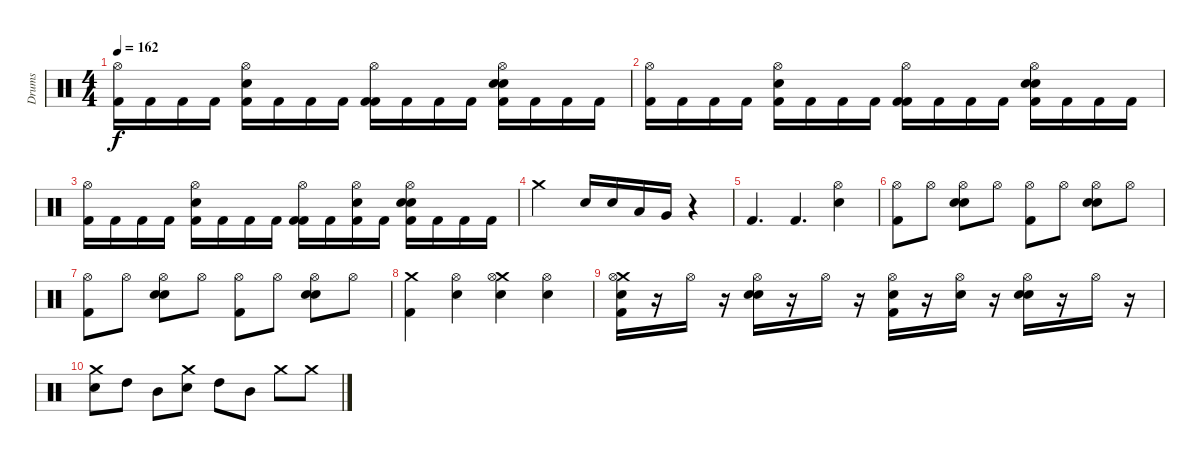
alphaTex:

\track ("Drums" "Drums") {instrument percussion}
\staff {score}
\articulation defaults
\ts (4 4)
\tempo 162
\clef neutral
\ks c
("Hi-Hat (open)" "Kick (hit) 2").16{dy f} "Kick (hit) 2".16 "Kick (hit) 2".16 "Kick (hit) 2".16 ("Kick (hit) 2" "Electric Snare (hit)" "Hi-Hat (open)").16 "Kick (hit) 2".16 "Kick (hit) 2".16 "Kick (hit) 2".16 ("Kick (hit) 2" "Hi-Hat (open)" "Kick (hit) 2").16 "Kick (hit) 2".16 "Kick (hit) 2".16 "Kick (hit) 2".16 ("Kick (hit) 2" "Electric Snare (hit)" "Hi-Hat (open)" "Snare (hit) 2").16 "Kick (hit) 2".16 "Kick (hit) 2".16 "Kick (hit) 2".16 |
("Hi-Hat (open)" "Kick (hit) 2").16 "Kick (hit) 2".16 "Kick (hit) 2".16 "Kick (hit) 2".16 ("Kick (hit) 2" "Electric Snare (hit)" "Hi-Hat (open)").16 "Kick (hit) 2".16 "Kick (hit) 2".16 "Kick (hit) 2".16 ("Kick (hit) 2" "Hi-Hat (open)" "Kick (hit) 2").16 "Kick (hit) 2".16 "Kick (hit) 2".16 "Kick (hit) 2".16 ("Kick (hit) 2" "Electric Snare (hit)" "Hi-Hat (open)" "Snare (hit) 2").16 "Kick (hit) 2".16 "Kick (hit) 2".16 "Kick (hit) 2".16 |
("Hi-Hat (open)" "Kick (hit) 2").16 "Kick (hit) 2".16 "Kick (hit) 2".16 "Kick (hit) 2".16 ("Kick (hit) 2" "Electric Snare (hit)" "Hi-Hat (open)").16 "Kick (hit) 2".16 "Kick (hit) 2".16 "Kick (hit) 2".16 ("Kick (hit) 2" "Hi-Hat (open)" "Kick (hit) 2").16 "Kick (hit) 2".16 ("Kick (hit) 2" "Electric Snare (hit)" "Hi-Hat (open)").16 "Kick (hit) 2".16 ("Kick (hit) 2" "Electric Snare (hit)" "Hi-Hat (open)" "Snare (hit) 2").16 "Kick (hit) 2".16 "Kick (hit) 2".16 "Kick (hit) 2".16 |
"Crash medium (hit)".2 "Electric Snare (hit)".16 "Electric Snare (hit)".16 "Low Tom (hit)".16 "Very Low Tom (hit)".16 r.4 |
"Kick (hit) 2".4{d} "Kick (hit) 2".4{d} ("Hi-Hat (open)" "Electric Snare (hit)").4 |
("Hi-Hat (open)" "Kick (hit) 2").8 "Hi-Hat (open)".8 ("Electric Snare (hit)" "Hi-Hat (open)" "Snare (hit) 2").8 "Hi-Hat (open)".8 ("Hi-Hat (open)" "Kick (hit) 2").8 "Hi-Hat (open)".8 ("Electric Snare (hit)" "Hi-Hat (open)" "Snare (hit) 2").8 "Hi-Hat (open)".8 |
("Hi-Hat (open)" "Kick (hit) 2").8 "Hi-Hat (open)".8 ("Electric Snare (hit)" "Hi-Hat (open)" "Snare (hit) 2").8 "Hi-Hat (open)".8 ("Hi-Hat (open)" "Kick (hit) 2").8 "Hi-Hat (open)".8 ("Electric Snare (hit)" "Hi-Hat (open)" "Snare (hit) 2").8 "Hi-Hat (open)".8 |
("Crash medium (hit)" "Kick (hit) 2").4 ("Electric Snare (hit)" "Hi-Hat (open)").4 ("Crash medium (hit)" "Hi-Hat (open)" "Snare (hit) 2").4 ("Electric Snare (hit)" "Hi-Hat (open)").4 |
("Crash medium (hit)" "Electric Snare (hit)" "Hi-Hat (open)" "Kick (hit) 2").16 r.16 "Hi-Hat (open)".16 r.16 ("Electric Snare (hit)" "Hi-Hat (open)" "Snare (hit) 2").16 r.16 "Hi-Hat (open)".16 r.16 ("Electric Snare (hit)" "Hi-Hat (open)" "Kick (hit) 2").16 r.16 ("Hi-Hat (open)" "Electric Snare (hit)").16 r.16 ("Electric Snare (hit)" "Hi-Hat (open)" "Snare (hit) 2").16 r.16 "Hi-Hat (open)".16 r.16 |
("Crash medium (hit)" "Electric Snare (hit)").8 "High Tom (hit)".8 "Mid Tom (hit)".8 ("Crash medium (hit)" "Electric Snare (hit)").8 "High Tom (hit)".8 "Mid Tom (hit)".8 "Crash medium (hit)".8 "Crash medium (hit)".8
